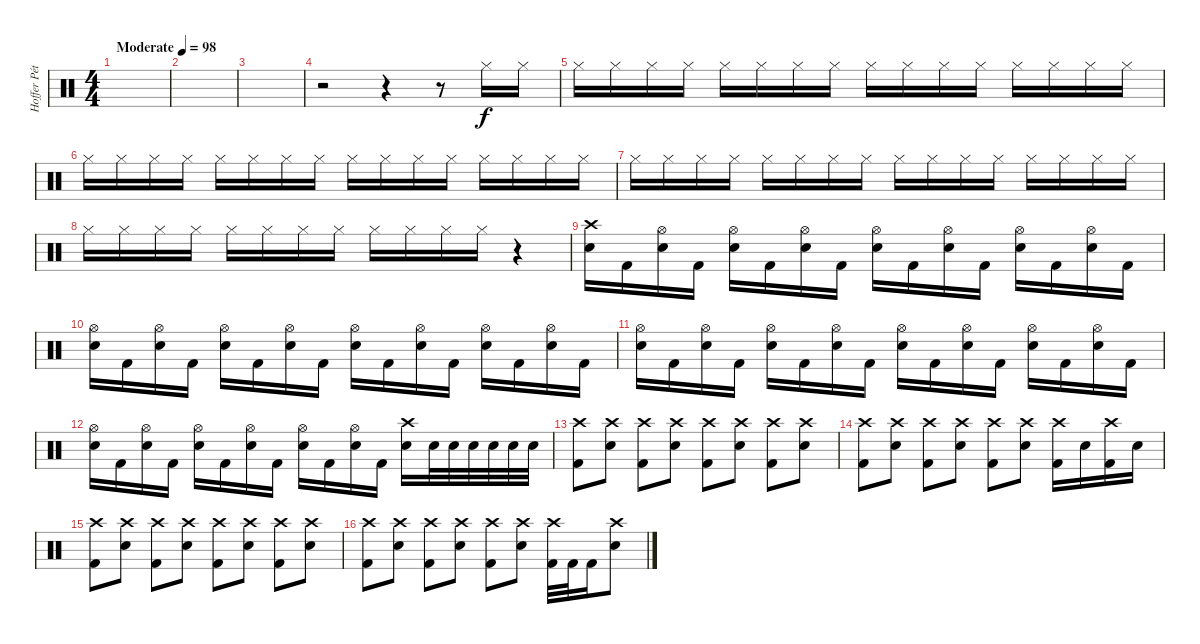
\track ("Hoffer Péter" "Hoffer Pét") {instrument percussion}
\staff {score}
\articulation defaults
\ts (4 4)
\tempo (98 "Moderate")
\clef neutral
\ks c
|
|
|
r.2 r.4 r.8 "Hi-Hat (closed)".16 "Hi-Hat (closed)".16 |
"Hi-Hat (closed)".16{volume 5} "Hi-Hat (closed)".16 "Hi-Hat (closed)".16{volume 7} "Hi-Hat (closed)".16 "Hi-Hat (closed)".16{volume 9} "Hi-Hat (closed)".16 "Hi-Hat (closed)".16{volume 7} "Hi-Hat (closed)".16 "Hi-Hat (closed)".16{volume 5} "Hi-Hat (closed)".16 "Hi-Hat (closed)".16{volume 7} "Hi-Hat (closed)".16 "Hi-Hat (closed)".16{volume 9} "Hi-Hat (closed)".16 "Hi-Hat (closed)".16{volume 12} "Hi-Hat (closed)".16 |
"Hi-Hat (closed)".16{volume 5} "Hi-Hat (closed)".16 "Hi-Hat (closed)".16{volume 7} "Hi-Hat (closed)".16 "Hi-Hat (closed)".16{volume 9} "Hi-Hat (closed)".16 "Hi-Hat (closed)".16{volume 7} "Hi-Hat (closed)".16 "Hi-Hat (closed)".16{volume 5} "Hi-Hat (closed)".16 "Hi-Hat (closed)".16{volume 7} "Hi-Hat (closed)".16 "Hi-Hat (closed)".16{volume 9} "Hi-Hat (closed)".16 "Hi-Hat (closed)".16{volume 12} "Hi-Hat (closed)".16 |
"Hi-Hat (closed)".16{volume 5} "Hi-Hat (closed)".16 "Hi-Hat (closed)".16{volume 7} "Hi-Hat (closed)".16 "Hi-Hat (closed)".16{volume 9} "Hi-Hat (closed)".16 "Hi-Hat (closed)".16{volume 7} "Hi-Hat (closed)".16 "Hi-Hat (closed)".16{volume 5} "Hi-Hat (closed)".16 "Hi-Hat (closed)".16{volume 7} "Hi-Hat (closed)".16 "Hi-Hat (closed)".16{volume 9} "Hi-Hat (closed)".16 "Hi-Hat (closed)".16{volume 12} "Hi-Hat (closed)".16 |
"Hi-Hat (closed)".16{volume 5} "Hi-Hat (closed)".16 "Hi-Hat (closed)".16{volume 7} "Hi-Hat (closed)".16 "Hi-Hat (closed)".16{volume 9} "Hi-Hat (closed)".16 "Hi-Hat (closed)".16{volume 7} "Hi-Hat (closed)".16 "Hi-Hat (closed)".16{volume 5} "Hi-Hat (closed)".16 "Hi-Hat (closed)".16{volume 7} "Hi-Hat (closed)".16 r.4 |
("Crash high (hit)" "Electric Snare (hit)").16{volume 16} "Kick (hit) 2".16 ("Hi-Hat (open)" "Electric Snare (hit)").16 "Kick (hit) 2".16 ("Hi-Hat (open)" "Electric Snare (hit)").16 "Kick (hit) 2".16 ("Hi-Hat (open)" "Electric Snare (hit)").16 "Kick (hit) 2".16 ("Hi-Hat (open)" "Electric Snare (hit)").16 "Kick (hit) 2".16 ("Hi-Hat (open)" "Electric Snare (hit)").16 "Kick (hit) 2".16 ("Hi-Hat (open)" "Electric Snare (hit)").16 "Kick (hit) 2".16 ("Hi-Hat (open)" "Electric Snare (hit)").16 "Kick (hit) 2".16 |
("Hi-Hat (open)" "Electric Snare (hit)").16 "Kick (hit) 2".16 ("Hi-Hat (open)" "Electric Snare (hit)").16 "Kick (hit) 2".16 ("Hi-Hat (open)" "Electric Snare (hit)").16 "Kick (hit) 2".16 ("Hi-Hat (open)" "Electric Snare (hit)").16 "Kick (hit) 2".16 ("Hi-Hat (open)" "Electric Snare (hit)").16 "Kick (hit) 2".16 ("Hi-Hat (open)" "Electric Snare (hit)").16 "Kick (hit) 2".16 ("Hi-Hat (open)" "Electric Snare (hit)").16 "Kick (hit) 2".16 ("Hi-Hat (open)" "Electric Snare (hit)").16 "Kick (hit) 2".16 |
("Hi-Hat (open)" "Electric Snare (hit)").16 "Kick (hit) 2".16 ("Hi-Hat (open)" "Electric Snare (hit)").16 "Kick (hit) 2".16 ("Hi-Hat (open)" "Electric Snare (hit)").16 "Kick (hit) 2".16 ("Hi-Hat (open)" "Electric Snare (hit)").16 "Kick (hit) 2".16 ("Hi-Hat (open)" "Electric Snare (hit)").16 "Kick (hit) 2".16 ("Hi-Hat (open)" "Electric Snare (hit)").16 "Kick (hit) 2".16 ("Hi-Hat (open)" "Electric Snare (hit)").16 "Kick (hit) 2".16 ("Hi-Hat (open)" "Electric Snare (hit)").16 "Kick (hit) 2".16 |
("Hi-Hat (open)" "Electric Snare (hit)").16 "Kick (hit) 2".16 ("Hi-Hat (open)" "Electric Snare (hit)").16 "Kick (hit) 2".16 ("Hi-Hat (open)" "Electric Snare (hit)").16 "Kick (hit) 2".16 ("Hi-Hat (open)" "Electric Snare (hit)").16 "Kick (hit) 2".16 ("Hi-Hat (open)" "Electric Snare (hit)").16 "Kick (hit) 2".16 ("Hi-Hat (open)" "Electric Snare (hit)").16 "Kick (hit) 2".16 ("Crash high (hit)" "Electric Snare (hit)").16 "Electric Snare (hit)".32 "Electric Snare (hit)".32 "Electric Snare (hit)".32 "Electric Snare (hit)".32 "Electric Snare (hit)".32 "Electric Snare (hit)".32 |
("Crash high (hit)" "Kick (hit) 2").8 ("Crash high (hit)" "Electric Snare (hit)").8 ("Crash high (hit)" "Kick (hit) 2").8 ("Crash high (hit)" "Electric Snare (hit)").8 ("Crash high (hit)" "Kick (hit) 2").8 ("Crash high (hit)" "Electric Snare (hit)").8 ("Crash high (hit)" "Kick (hit) 2").8 ("Crash high (hit)" "Electric Snare (hit)").8 |
("Crash high (hit)" "Kick (hit) 2").8 ("Crash high (hit)" "Electric Snare (hit)").8 ("Crash high (hit)" "Kick (hit) 2").8 ("Crash high (hit)" "Electric Snare (hit)").8 ("Crash high (hit)" "Kick (hit) 2").8 ("Crash high (hit)" "Electric Snare (hit)").8 ("Crash high (hit)" "Kick (hit) 2").16 "Electric Snare (hit)".16 ("Crash high (hit)" "Kick (hit) 2").16 "Electric Snare (hit)".16 |
("Crash high (hit)" "Kick (hit) 2").8 ("Crash high (hit)" "Electric Snare (hit)").8 ("Crash high (hit)" "Kick (hit) 2").8 ("Crash high (hit)" "Electric Snare (hit)").8 ("Crash high (hit)" "Kick (hit) 2").8 ("Crash high (hit)" "Electric Snare (hit)").8 ("Crash high (hit)" "Kick (hit) 2").8 ("Crash high (hit)" "Electric Snare (hit)").8 |
("Crash high (hit)" "Kick (hit) 2").8 ("Crash high (hit)" "Electric Snare (hit)").8 ("Crash high (hit)" "Kick (hit) 2").8 ("Crash high (hit)" "Electric Snare (hit)").8 ("Crash high (hit)" "Kick (hit) 2").8 ("Crash high (hit)" "Electric Snare (hit)").8 ("Crash high (hit)" "Kick (hit) 2").32 "Kick (hit) 2".32 "Kick (hit) 2".16 ("Crash high (hit)" "Electric Snare (hit)").8
